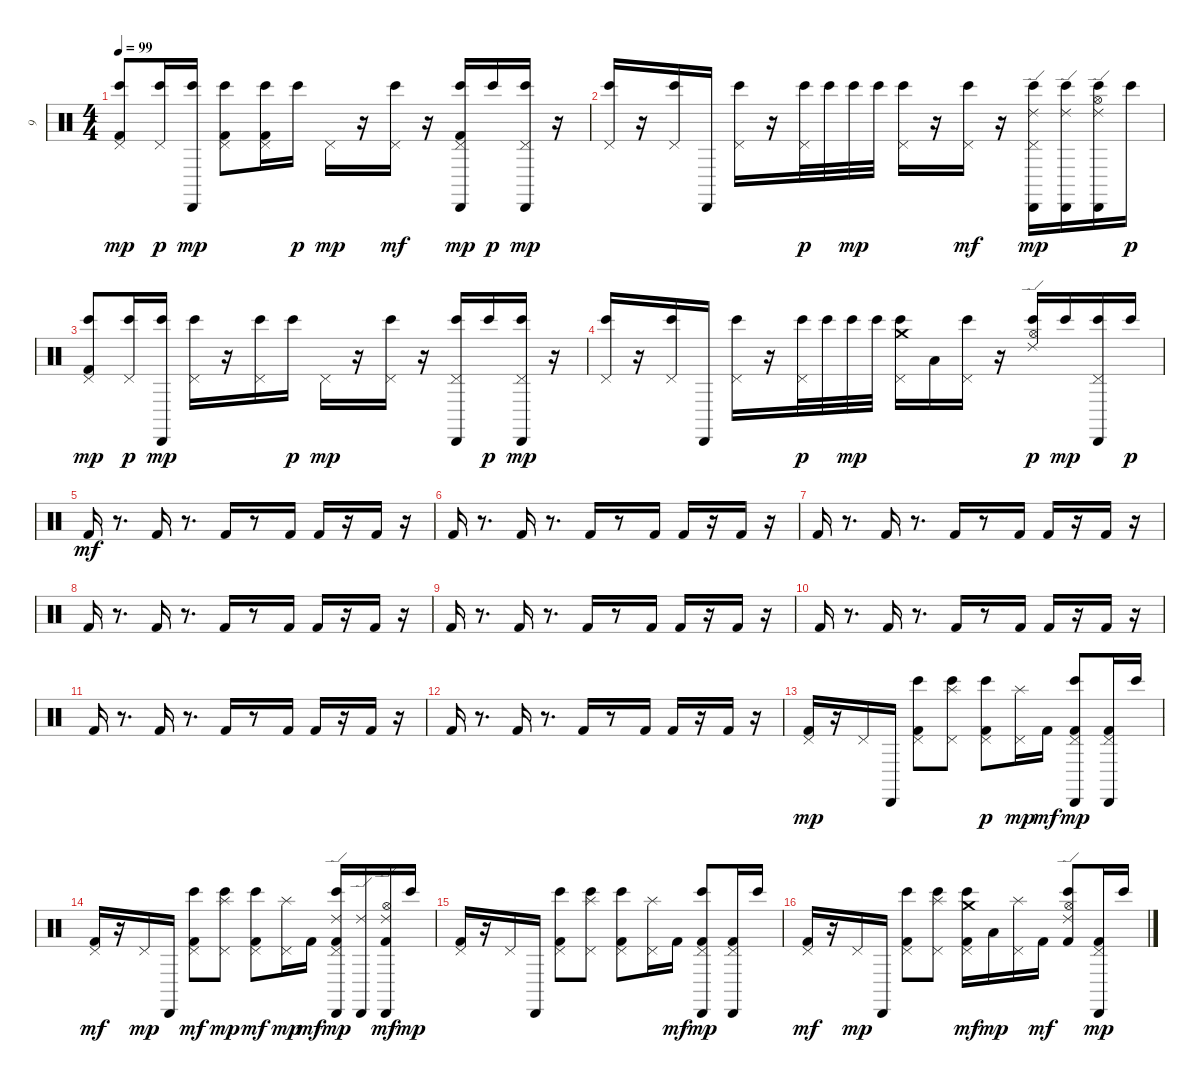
\track ("9" "9") {instrument percussion}
\staff {score}
\articulation defaults
\ts (4 4)
\tempo 99
\clef neutral
\ks c
("Kick (hit) 2" "Bongo High (hit)" "Pedal Hi-Hat (hit)").8{dy mp} ("Pedal Hi-Hat (hit)" "Bongo High (hit)").16{dy p} ("Cabasa (hit)" "Bongo High (hit)").16{dy mp} ("Bongo High (hit)" "Kick (hit) 2" "Pedal Hi-Hat (hit)").8 ("Pedal Hi-Hat (hit)" "Bongo High (hit)" "Kick (hit) 2").16 "Bongo High (hit)".16{dy p} "Pedal Hi-Hat (hit)".16{dy mp} r.16 ("Pedal Hi-Hat (hit)" "Bongo High (hit)").16{dy mf} r.16 ("Bongo High (hit)" "Kick (hit) 2" "Pedal Hi-Hat (hit)" "Cabasa (hit)").16{dy mp} "Bongo High (hit)".16{dy p} ("Pedal Hi-Hat (hit)" "Bongo High (hit)" "Cabasa (hit)").16{dy mp} r.16 |
("Bongo High (hit)" "Pedal Hi-Hat (hit)").16 r.16 ("Pedal Hi-Hat (hit)" "Bongo High (hit)").16 "Cabasa (hit)".16 ("Pedal Hi-Hat (hit)" "Bongo High (hit)").16 r.16 ("Pedal Hi-Hat (hit)" "Bongo High (hit)").32{dy p} "Bongo High (hit)".32 "Bongo High (hit)".32{dy mp} "Bongo High (hit)".32 ("Bongo High (hit)" "Pedal Hi-Hat (hit)").16 r.16 ("Pedal Hi-Hat (hit)" "Bongo High (hit)").16{dy mf} r.16 ("Pedal Hi-Hat (hit)" "Bongo High (hit)" "Cabasa (hit)" "Ride (edge) 2").16{dy mp} ("Bongo High (hit)" "Ride (edge) 2" "Cabasa (hit)").16 ("Hi-Hat (open)" "Cabasa (hit)" "Ride (edge) 2" "Bongo High (hit)").16 "Bongo High (hit)".16{dy p} |
("Kick (hit) 2" "Bongo High (hit)" "Pedal Hi-Hat (hit)").8{dy mp} ("Pedal Hi-Hat (hit)" "Bongo High (hit)").16{dy p} ("Cabasa (hit)" "Bongo High (hit)").16{dy mp} ("Bongo High (hit)" "Pedal Hi-Hat (hit)").16 r.16 ("Bongo High (hit)" "Pedal Hi-Hat (hit)").16 "Bongo High (hit)".16{dy p} "Pedal Hi-Hat (hit)".16{dy mp} r.16 ("Bongo High (hit)" "Pedal Hi-Hat (hit)").16 r.16 ("Pedal Hi-Hat (hit)" "Cabasa (hit)" "Bongo High (hit)").16 "Bongo High (hit)".16{dy p} ("Bongo High (hit)" "Pedal Hi-Hat (hit)" "Cabasa (hit)").16{dy mp} r.16 |
("Bongo High (hit)" "Pedal Hi-Hat (hit)").16 r.16 ("Pedal Hi-Hat (hit)" "Bongo High (hit)").16 "Cabasa (hit)".16 ("Pedal Hi-Hat (hit)" "Bongo High (hit)").16 r.16 ("Pedal Hi-Hat (hit)" "Bongo High (hit)").32{dy p} "Bongo High (hit)".32 "Bongo High (hit)".32{dy mp} "Bongo High (hit)".32 ("Bongo High (hit)" "Crash medium (hit)" "Pedal Hi-Hat (hit)").16 "Low Tom (hit)".16 ("Bongo High (hit)" "Pedal Hi-Hat (hit)").16 r.16 ("Hi-Hat (open)" "Ride (edge) 2" "Bongo High (hit)").16{dy p} "Bongo High (hit)".16{dy mp} ("Bongo High (hit)" "Pedal Hi-Hat (hit)" "Cabasa (hit)").16 "Bongo High (hit)".16{dy p} |
"Kick (hit) 2".16{dy mf} r.8{d} "Kick (hit) 2".16 r.8{d} "Kick (hit) 2".16 r.8 "Kick (hit) 2".16 "Kick (hit) 2".16 r.16 "Kick (hit) 2".16 r.16 |
"Kick (hit) 2".16 r.8{d} "Kick (hit) 2".16 r.8{d} "Kick (hit) 2".16 r.8 "Kick (hit) 2".16 "Kick (hit) 2".16 r.16 "Kick (hit) 2".16 r.16 |
"Kick (hit) 2".16 r.8{d} "Kick (hit) 2".16 r.8{d} "Kick (hit) 2".16 r.8 "Kick (hit) 2".16 "Kick (hit) 2".16 r.16 "Kick (hit) 2".16 r.16 |
"Kick (hit) 2".16 r.8{d} "Kick (hit) 2".16 r.8{d} "Kick (hit) 2".16 r.8 "Kick (hit) 2".16 "Kick (hit) 2".16 r.16 "Kick (hit) 2".16 r.16 |
"Kick (hit) 2".16 r.8{d} "Kick (hit) 2".16 r.8{d} "Kick (hit) 2".16 r.8 "Kick (hit) 2".16 "Kick (hit) 2".16 r.16 "Kick (hit) 2".16 r.16 |
"Kick (hit) 2".16 r.8{d} "Kick (hit) 2".16 r.8{d} "Kick (hit) 2".16 r.8 "Kick (hit) 2".16 "Kick (hit) 2".16 r.16 "Kick (hit) 2".16 r.16 |
"Kick (hit) 2".16 r.8{d} "Kick (hit) 2".16 r.8{d} "Kick (hit) 2".16 r.8 "Kick (hit) 2".16 "Kick (hit) 2".16 r.16 "Kick (hit) 2".16 r.16 |
"Kick (hit) 2".16 r.8{d} "Kick (hit) 2".16 r.8{d} "Kick (hit) 2".16 r.8 "Kick (hit) 2".16 "Kick (hit) 2".16 r.16 "Kick (hit) 2".16 r.16 |
("Kick (hit) 2" "Pedal Hi-Hat (hit)").16{dy mp} r.16 "Pedal Hi-Hat (hit)".16 "Cabasa (hit)".16 ("Bongo High (hit)" "Kick (hit) 2" "Pedal Hi-Hat (hit)").8 ("Bongo High (hit)" "Pedal Hi-Hat (hit)" "Splash (hit)").8 ("Kick (hit) 2" "Pedal Hi-Hat (hit)" "Bongo High (hit)").8{dy p} ("Splash (hit)" "Pedal Hi-Hat (hit)").16{dy mp} "Kick (hit) 2".16{dy mf} ("Kick (hit) 2" "Cabasa (hit)" "Pedal Hi-Hat (hit)" "Bongo High (hit)").8{dy mp} ("Pedal Hi-Hat (hit)" "Kick (hit) 2" "Cabasa (hit)").16 "Bongo High (hit)".16 |
("Pedal Hi-Hat (hit)" "Kick (hit) 2").16{dy mf} r.16 "Pedal Hi-Hat (hit)".16{dy mp} "Cabasa (hit)".16 ("Bongo High (hit)" "Pedal Hi-Hat (hit)" "Kick (hit) 2").8{dy mf} ("Pedal Hi-Hat (hit)" "Bongo High (hit)" "Splash (hit)").8{dy mp} ("Bongo High (hit)" "Pedal Hi-Hat (hit)" "Kick (hit) 2").8{dy mf} ("Splash (hit)" "Pedal Hi-Hat (hit)").16{dy mp} "Kick (hit) 2".16{dy mf} ("Pedal Hi-Hat (hit)" "Cabasa (hit)" "Ride (edge) 2" "Kick (hit) 2" "Bongo High (hit)").16{dy mp} ("Cabasa (hit)" "Ride (edge) 2").16 ("Hi-Hat (open)" "Cabasa (hit)" "Ride (edge) 2" "Kick (hit) 2").16{dy mf} "Bongo High (hit)".16{dy mp} |
("Kick (hit) 2" "Pedal Hi-Hat (hit)").16 r.16 "Pedal Hi-Hat (hit)".16 "Cabasa (hit)".16 ("Kick (hit) 2" "Pedal Hi-Hat (hit)" "Bongo High (hit)").8 ("Pedal Hi-Hat (hit)" "Bongo High (hit)" "Splash (hit)").8 ("Bongo High (hit)" "Kick (hit) 2" "Pedal Hi-Hat (hit)").8 ("Splash (hit)" "Pedal Hi-Hat (hit)").16 "Kick (hit) 2".16{dy mf} ("Cabasa (hit)" "Bongo High (hit)" "Kick (hit) 2" "Pedal Hi-Hat (hit)").8{dy mp} ("Cabasa (hit)" "Kick (hit) 2" "Pedal Hi-Hat (hit)").16 "Bongo High (hit)".16 |
("Pedal Hi-Hat (hit)" "Kick (hit) 2").16{dy mf} r.16 "Pedal Hi-Hat (hit)".16{dy mp} "Cabasa (hit)".16 ("Pedal Hi-Hat (hit)" "Kick (hit) 2" "Bongo High (hit)").8 ("Bongo High (hit)" "Pedal Hi-Hat (hit)" "Splash (hit)").8 ("Pedal Hi-Hat (hit)" "Bongo High (hit)" "Crash medium (hit)" "Kick (hit) 2").16{dy mf} "Low Tom (hit)".16{dy mp} ("Pedal Hi-Hat (hit)" "Splash (hit)").16 "Kick (hit) 2".16{dy mf} ("Bongo High (hit)" "Ride (edge) 2" "Hi-Hat (open)" "Kick (hit) 2").8 ("Pedal Hi-Hat (hit)" "Kick (hit) 2" "Cabasa (hit)").16{dy mp} "Bongo High (hit)".16
